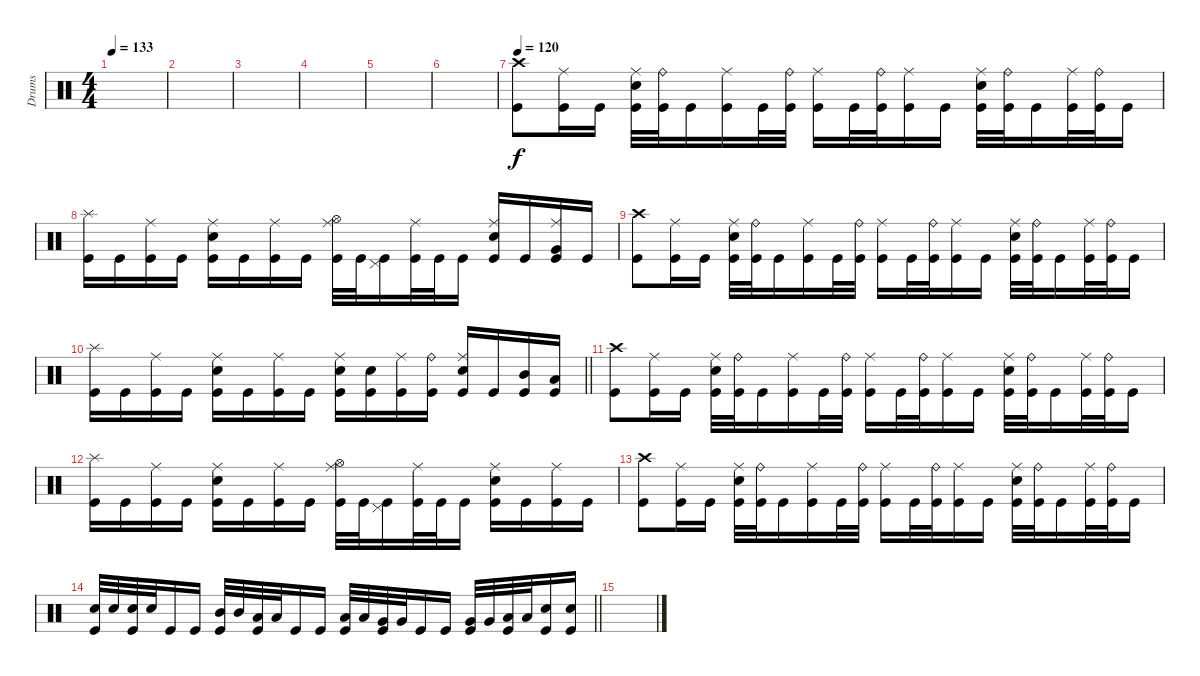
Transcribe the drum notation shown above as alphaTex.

\track ("Drums" "Drums") {instrument percussion}
\staff
\articulation defaults
\ts (4 4)
\tempo 133
\clef neutral
\ks c
|
|
|
|
|
|
\tempo 120
("Crash high (hit)" "Kick (hit)").8 ("Ride (middle)" "Kick (hit)").16 "Kick (hit)".16 ("Ride (middle)" "Electric Snare (hit)" "Kick (hit)").32 ("Ride (bell)" "Kick (hit)").32 "Kick (hit)".16 ("Ride (middle)" "Kick (hit)").16 "Kick (hit)".32 ("Ride (bell)" "Kick (hit)").32 ("Ride (middle)" "Kick (hit)").16 "Kick (hit)".32 ("Ride (bell)" "Kick (hit)").32 ("Ride (middle)" "Kick (hit)").16 "Kick (hit)".16 ("Ride (middle)" "Electric Snare (hit)" "Kick (hit)").32 ("Ride (bell)" "Kick (hit)").32 "Kick (hit)".16 ("Ride (middle)" "Kick (hit)").32 ("Ride (bell)" "Kick (hit)").32 "Kick (hit)".16 |
("Splash (hit)" "Kick (hit)").16 "Kick (hit)".16 ("Ride (middle)" "Kick (hit)").16 "Kick (hit)".16 ("Ride (middle)" "Electric Snare (hit)" "Kick (hit)").16 "Kick (hit)".16 ("Ride (middle)" "Kick (hit)").16 "Kick (hit)".16 ("Ride (middle)" "Hi-Hat (open)" "Kick (hit)").32 "Kick (hit)".32 ("Pedal Hi-Hat (hit)" "Kick (hit)").16 ("Ride (middle)" "Kick (hit)").32 "Kick (hit)".32 "Kick (hit)".16 ("Ride (middle)" "Electric Snare (hit)" "Kick (hit)").16 "Kick (hit)".16 ("Ride (middle)" "Very Low Tom (hit)" "Kick (hit)").16 "Kick (hit)".16 |
("Crash high (hit)" "Kick (hit)").8 ("Ride (middle)" "Kick (hit)").16 "Kick (hit)".16 ("Ride (middle)" "Electric Snare (hit)" "Kick (hit)").32 ("Ride (bell)" "Kick (hit)").32 "Kick (hit)".16 ("Ride (middle)" "Kick (hit)").16 "Kick (hit)".32 ("Ride (bell)" "Kick (hit)").32 ("Ride (middle)" "Kick (hit)").16 "Kick (hit)".32 ("Ride (bell)" "Kick (hit)").32 ("Ride (middle)" "Kick (hit)").16 "Kick (hit)".16 ("Ride (middle)" "Electric Snare (hit)" "Kick (hit)").32 ("Ride (bell)" "Kick (hit)").32 "Kick (hit)".16 ("Ride (middle)" "Kick (hit)").32 ("Ride (bell)" "Kick (hit)").32 "Kick (hit)".16 |
\barLineRight lightlight
("Splash (hit)" "Kick (hit)").16 "Kick (hit)".16 ("Ride (middle)" "Kick (hit)").16 "Kick (hit)".16 ("Ride (middle)" "Electric Snare (hit)" "Kick (hit)").16 "Kick (hit)".16 ("Ride (middle)" "Kick (hit)").16 "Kick (hit)".16 ("Ride (middle)" "Electric Snare (hit)" "Kick (hit)").16 ("Electric Snare (hit)" "Kick (hit)").16 ("Ride (middle)" "Kick (hit)").16 ("Ride (bell)" "Kick (hit)").16 ("Ride (middle)" "Electric Snare (hit)" "Kick (hit)").16 "Kick (hit)".16 ("Mid Tom (hit)" "Kick (hit)").16 ("Low Tom (hit)" "Kick (hit)").16 |
("Crash high (hit)" "Kick (hit)").8 ("Ride (middle)" "Kick (hit)").16 "Kick (hit)".16 ("Ride (middle)" "Electric Snare (hit)" "Kick (hit)").32 ("Ride (bell)" "Kick (hit)").32 "Kick (hit)".16 ("Ride (middle)" "Kick (hit)").16 "Kick (hit)".32 ("Ride (bell)" "Kick (hit)").32 ("Ride (middle)" "Kick (hit)").16 "Kick (hit)".32 ("Ride (bell)" "Kick (hit)").32 ("Ride (middle)" "Kick (hit)").16 "Kick (hit)".16 ("Ride (middle)" "Electric Snare (hit)" "Kick (hit)").32 ("Ride (bell)" "Kick (hit)").32 "Kick (hit)".16 ("Ride (middle)" "Kick (hit)").32 ("Ride (bell)" "Kick (hit)").32 "Kick (hit)".16 |
("Splash (hit)" "Kick (hit)").16 "Kick (hit)".16 ("Ride (middle)" "Kick (hit)").16 "Kick (hit)".16 ("Ride (middle)" "Electric Snare (hit)" "Kick (hit)").16 "Kick (hit)".16 ("Ride (middle)" "Kick (hit)").16 "Kick (hit)".16 ("Ride (middle)" "Hi-Hat (open)" "Kick (hit)").32 "Kick (hit)".32 ("Pedal Hi-Hat (hit)" "Kick (hit)").16 ("Ride (middle)" "Kick (hit)").32 "Kick (hit)".32 "Kick (hit)".16 ("Ride (middle)" "Electric Snare (hit)" "Kick (hit)").16 "Kick (hit)".16 ("Ride (middle)" "Kick (hit)").16 "Kick (hit)".16 |
("Crash high (hit)" "Kick (hit)").8 ("Ride (middle)" "Kick (hit)").16 "Kick (hit)".16 ("Ride (middle)" "Electric Snare (hit)" "Kick (hit)").32 ("Ride (bell)" "Kick (hit)").32 "Kick (hit)".16 ("Ride (middle)" "Kick (hit)").16 "Kick (hit)".32 ("Ride (bell)" "Kick (hit)").32 ("Ride (middle)" "Kick (hit)").16 "Kick (hit)".32 ("Ride (bell)" "Kick (hit)").32 ("Ride (middle)" "Kick (hit)").16 "Kick (hit)".16 ("Ride (middle)" "Electric Snare (hit)" "Kick (hit)").32 ("Ride (bell)" "Kick (hit)").32 "Kick (hit)".16 ("Ride (middle)" "Kick (hit)").32 ("Ride (bell)" "Kick (hit)").32 "Kick (hit)".16 |
\barLineRight lightlight
("Electric Snare (hit)" "Kick (hit)").32 "Electric Snare (hit)".32 ("Electric Snare (hit)" "Kick (hit)").32 "Electric Snare (hit)".32 "Kick (hit)".16 "Kick (hit)".16 ("Mid Tom (hit)" "Kick (hit)").32 "Mid Tom (hit)".32 ("Low Tom (hit)" "Kick (hit)").32 "Low Tom (hit)".32 "Kick (hit)".16 "Kick (hit)".16 ("Low Tom (hit)" "Kick (hit)").32 "Low Tom (hit)".32 ("Very Low Tom (hit)" "Kick (hit)").32 "Very Low Tom (hit)".32 "Kick (hit)".16 "Kick (hit)".16 ("Very Low Tom (hit)" "Kick (hit)").32 "Very Low Tom (hit)".32 ("Low Floor Tom (hit)" "Kick (hit)").32 "Low Floor Tom (hit)".32 ("Electric Snare (hit)" "Kick (hit)").16 ("Electric Snare (hit)" "Kick (hit)").16 |
\section ("" "")
